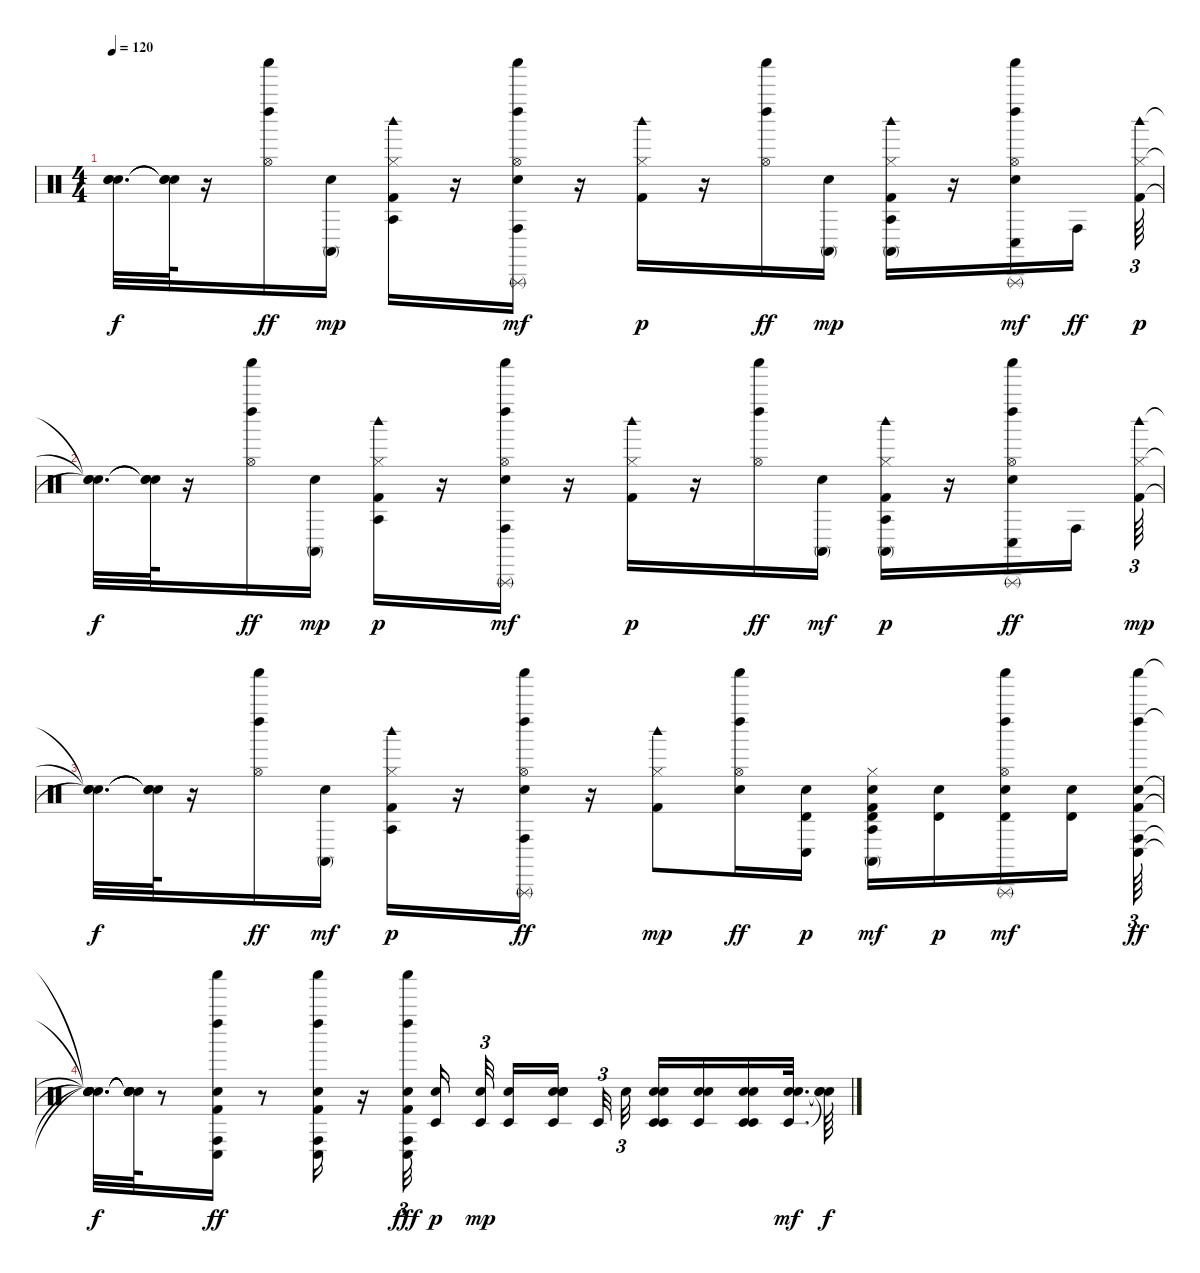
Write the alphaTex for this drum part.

\track "" {instrument percussion}
\staff {score}
\articulation defaults
\ts (4 4)
\tempo 120
\clef neutral
\ks c
("Snare (hit)"{t} "Snare (hit)"{t} "Snare (hit)"{t}).32{d dy f} ("Snare (hit)"{t} "Snare (hit)"{t} "Snare (hit)"{t}).64 r.16 ("Shaker (hit)" "Left Maraca (hit)" "Hi-Hat (open)").16{dy ff} ("Electric Snare (hit)" "Conga high (mute)").16{dy mp} ("Kick (hit) 2" "Hi-Hat (closed)" "Agogo tow (hit)" "Woodblock high (hit)").16 r.16 ("Shaker (hit)" "Left Maraca (hit)" "Electric Snare (hit)" "Conga high (hit)" "Hi-Hat (open)" "Triangle (rnute)").16{dy mf} r.16 ("Kick (hit) 2" "Hi-Hat (closed)" "Woodblock high (hit)").16{dy p} r.16 ("Shaker (hit)" "Left Maraca (hit)" "Hi-Hat (open)").16{dy ff} ("Electric Snare (hit)" "Conga high (mute)").16{dy mp} ("Kick (hit) 2" "Conga high (mute)" "Hi-Hat (closed)" "Agogo tow (hit)" "Woodblock high (hit)").16 r.16 ("Shaker (hit)" "Left Maraca (hit)" "Electric Snare (hit)" "Conga low (hit)" "Hi-Hat (open)" "Triangle (rnute)").16{dy mf} "Conga high (hit)".16{dy ff} ("Kick (hit) 2" "Hi-Hat (closed)" "Woodblock high (hit)").64{tu (3 2) dy p} |
("Snare (hit)"{t} "Snare (hit)"{t} "Snare (hit)"{t}).32{d dy f} ("Snare (hit)"{t} "Snare (hit)"{t} "Snare (hit)"{t}).64 r.16 ("Shaker (hit)" "Left Maraca (hit)" "Hi-Hat (open)").16{dy ff} ("Electric Snare (hit)" "Conga high (mute)").16{dy mp} ("Kick (hit) 2" "Hi-Hat (closed)" "Agogo tow (hit)" "Woodblock high (hit)").16{dy p} r.16 ("Shaker (hit)" "Left Maraca (hit)" "Electric Snare (hit)" "Conga high (hit)" "Hi-Hat (open)" "Triangle (rnute)").16{dy mf} r.16 ("Kick (hit) 2" "Hi-Hat (closed)" "Woodblock high (hit)").16{dy p} r.16 ("Shaker (hit)" "Left Maraca (hit)" "Hi-Hat (open)").16{dy ff} ("Electric Snare (hit)" "Conga high (mute)").16{dy mf} ("Kick (hit) 2" "Conga high (mute)" "Hi-Hat (closed)" "Agogo tow (hit)" "Woodblock high (hit)").16{dy p} r.16 ("Shaker (hit)" "Left Maraca (hit)" "Electric Snare (hit)" "Conga low (hit)" "Hi-Hat (open)" "Triangle (rnute)").16{dy ff} "Conga high (hit)".16 ("Kick (hit) 2" "Hi-Hat (closed)" "Woodblock high (hit)").64{tu (3 2) dy mp} |
("Snare (hit)"{t} "Snare (hit)"{t} "Snare (hit)"{t}).32{d dy f} ("Snare (hit)"{t} "Snare (hit)"{t} "Snare (hit)"{t}).64 r.16 ("Shaker (hit)" "Left Maraca (hit)" "Hi-Hat (open)").16{dy ff} ("Electric Snare (hit)" "Conga high (mute)").16{dy mf} ("Kick (hit) 2" "Hi-Hat (closed)" "Agogo tow (hit)" "Woodblock high (hit)").16{dy p} r.16 ("Shaker (hit)" "Left Maraca (hit)" "Electric Snare (hit)" "Conga high (hit)" "Hi-Hat (open)" "Triangle (rnute)").16{dy ff} r.16 ("Kick (hit) 2" "Hi-Hat (closed)" "Woodblock high (hit)").8{dy mp} ("Shaker (hit)" "Left Maraca (hit)" "Electric Snare (hit)" "Hi-Hat (open)").16{dy ff} ("Electric Snare (hit)" "Conga low (hit)" "Timbale high (hit)").16{dy p} ("Kick (hit) 2" "Electric Snare (hit)" "Conga high (mute)" "Hi-Hat (closed)" "Timbale high (hit)" "Agogo tow (hit)").16{dy mf} ("Electric Snare (hit)" "Timbale high (hit)").16{dy p} ("Shaker (hit)" "Left Maraca (hit)" "Electric Snare (hit)" "Hi-Hat (open)" "Timbale high (hit)" "Triangle (rnute)").16{dy mf} ("Electric Snare (hit)" "Timbale high (hit)").16 ("Kick (hit) 2" "Shaker (hit)" "Left Maraca (hit)" "Electric Snare (hit)" "Conga low (hit)" "Conga high (hit)").64{tu (3 2) dy ff} |
("Snare (hit)"{t} "Snare (hit)"{t} "Snare (hit)"{t} "Snare (hit)"{t} "Snare (hit)"{t} "Snare (hit)"{t}).32{d dy f} ("Snare (hit)"{t} "Snare (hit)"{t} "Snare (hit)"{t} "Snare (hit)"{t} "Snare (hit)"{t} "Snare (hit)"{t}).64 r.8 ("Kick (hit) 2" "Shaker (hit)" "Left Maraca (hit)" "Electric Snare (hit)" "Conga low (hit)" "Conga high (hit)").16{dy ff} r.8 ("Kick (hit) 2" "Shaker (hit)" "Left Maraca (hit)" "Electric Snare (hit)" "Conga low (hit)" "Conga high (hit)").16 r.16 ("Kick (hit) 2" "Shaker (hit)" "Left Maraca (hit)" "Electric Snare (hit)" "Conga low (hit)" "Conga high (hit)").32{tu (3 2) dy fff beam splitsecondary} ("Snare (hit) 2" "Timbale low (hit)").16{dy p beam splitsecondary} ("Snare (hit) 2" "Timbale low (hit)").32{tu (3 2) dy mp beam splitsecondary} ("Snare (hit) 2" "Timbale low (hit)").16 ("Snare (hit) 2" "Snare (hit) 2" "Timbale low (hit)" "Snare (hit) 2").16{beam splitsecondary} "Timbale low (hit)".32{tu (3 2)} "Snare (hit) 2".32{tu (3 2) beam splitsecondary} ("Timbale low (hit)" "Snare (hit) 2" "Timbale low (hit)" "Snare (hit) 2").16 ("Snare (hit) 2" "Timbale low (hit)" "Snare (hit) 2").16 ("Timbale low (hit)" "Snare (hit) 2" "Snare (hit) 2" "Timbale low (hit)").16 ("Snare (hit) 2" "Timbale low (hit)" "Snare (hit) 2").32{d dy mf} ("Snare (hit)"{t} "Snare (hit)"{t} "Snare (hit)"{t}).64{dy f}
